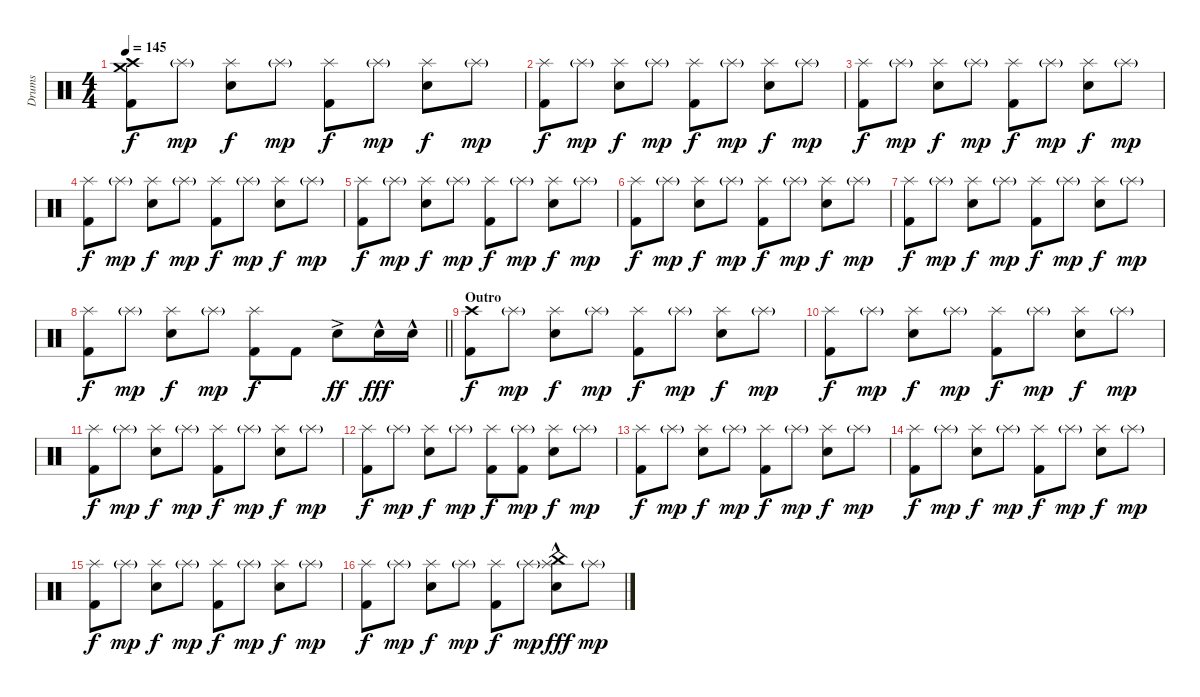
\track ("Drums" "Drums") {instrument percussion}
\staff {score}
\articulation defaults
\ts (4 4)
\tempo 145
\clef neutral
\ks c
("Crash high (hit)" "Crash medium (hit)" "Kick (hit) 2").8{dy f} "Splash (hit)"{g}.8{dy mp} ("Splash (hit)" "Snare (hit) 2").8{dy f} "Splash (hit)"{g}.8{dy mp} ("Splash (hit)" "Kick (hit) 2").8{dy f} "Splash (hit)"{g}.8{dy mp} ("Splash (hit)" "Snare (hit) 2").8{dy f} "Splash (hit)"{g}.8{dy mp} |
("Splash (hit)" "Kick (hit) 2").8{dy f} "Splash (hit)"{g}.8{dy mp} ("Splash (hit)" "Snare (hit) 2").8{dy f} "Splash (hit)"{g}.8{dy mp} ("Splash (hit)" "Kick (hit) 2").8{dy f} "Splash (hit)"{g}.8{dy mp} ("Splash (hit)" "Snare (hit) 2").8{dy f} "Splash (hit)"{g}.8{dy mp} |
("Splash (hit)" "Kick (hit) 2").8{dy f} "Splash (hit)"{g}.8{dy mp} ("Splash (hit)" "Snare (hit) 2").8{dy f} "Splash (hit)"{g}.8{dy mp} ("Splash (hit)" "Kick (hit) 2").8{dy f} "Splash (hit)"{g}.8{dy mp} ("Splash (hit)" "Snare (hit) 2").8{dy f} "Splash (hit)"{g}.8{dy mp} |
("Splash (hit)" "Kick (hit) 2").8{dy f} "Splash (hit)"{g}.8{dy mp} ("Splash (hit)" "Snare (hit) 2").8{dy f} "Splash (hit)"{g}.8{dy mp} ("Splash (hit)" "Kick (hit) 2").8{dy f} "Splash (hit)"{g}.8{dy mp} ("Splash (hit)" "Snare (hit) 2").8{dy f} "Splash (hit)"{g}.8{dy mp} |
("Splash (hit)" "Kick (hit) 2").8{dy f} "Splash (hit)"{g}.8{dy mp} ("Splash (hit)" "Snare (hit) 2").8{dy f} "Splash (hit)"{g}.8{dy mp} ("Splash (hit)" "Kick (hit) 2").8{dy f} "Splash (hit)"{g}.8{dy mp} ("Splash (hit)" "Snare (hit) 2").8{dy f} "Splash (hit)"{g}.8{dy mp} |
("Splash (hit)" "Kick (hit) 2").8{dy f} "Splash (hit)"{g}.8{dy mp} ("Splash (hit)" "Snare (hit) 2").8{dy f} "Splash (hit)"{g}.8{dy mp} ("Splash (hit)" "Kick (hit) 2").8{dy f} "Splash (hit)"{g}.8{dy mp} ("Splash (hit)" "Snare (hit) 2").8{dy f} "Splash (hit)"{g}.8{dy mp} |
("Splash (hit)" "Kick (hit) 2").8{dy f} "Splash (hit)"{g}.8{dy mp} ("Splash (hit)" "Snare (hit) 2").8{dy f} "Splash (hit)"{g}.8{dy mp} ("Splash (hit)" "Kick (hit) 2").8{dy f} "Splash (hit)"{g}.8{dy mp} ("Splash (hit)" "Snare (hit) 2").8{dy f} "Splash (hit)"{g}.8{dy mp} |
\barLineRight lightlight
("Splash (hit)" "Kick (hit) 2").8{dy f} "Splash (hit)"{g}.8{dy mp} ("Splash (hit)" "Snare (hit) 2").8{dy f} "Splash (hit)"{g}.8{dy mp} ("Splash (hit)" "Kick (hit) 2").8{dy f} "Kick (hit) 2".8 "Snare (hit) 2"{ac}.8{dy ff} "Snare (hit) 2"{hac}.16{dy fff} "Snare (hit) 2"{hac}.16 |
\section ("" "Outro")
("Crash high (hit)" "Kick (hit) 2").8{dy f} "Splash (hit)"{g}.8{dy mp} ("Splash (hit)" "Snare (hit) 2").8{dy f} "Splash (hit)"{g}.8{dy mp} ("Splash (hit)" "Kick (hit) 2").8{dy f} "Splash (hit)"{g}.8{dy mp} ("Splash (hit)" "Snare (hit) 2").8{dy f} "Splash (hit)"{g}.8{dy mp} |
("Splash (hit)" "Kick (hit) 2").8{dy f} "Splash (hit)"{g}.8{dy mp} ("Splash (hit)" "Snare (hit) 2").8{dy f} "Splash (hit)"{g}.8{dy mp} ("Splash (hit)" "Kick (hit) 2").8{dy f} "Splash (hit)"{g}.8{dy mp} ("Splash (hit)" "Snare (hit) 2").8{dy f} "Splash (hit)"{g}.8{dy mp} |
("Splash (hit)" "Kick (hit) 2").8{dy f} "Splash (hit)"{g}.8{dy mp} ("Splash (hit)" "Snare (hit) 2").8{dy f} "Splash (hit)"{g}.8{dy mp} ("Splash (hit)" "Kick (hit) 2").8{dy f} "Splash (hit)"{g}.8{dy mp} ("Splash (hit)" "Snare (hit) 2").8{dy f} "Splash (hit)"{g}.8{dy mp} |
("Splash (hit)" "Kick (hit) 2").8{dy f} "Splash (hit)"{g}.8{dy mp} ("Splash (hit)" "Snare (hit) 2").8{dy f} "Splash (hit)"{g}.8{dy mp} ("Splash (hit)" "Kick (hit) 2").8{dy f} ("Splash (hit)"{g} "Kick (hit) 2").8{dy mp} ("Splash (hit)" "Snare (hit) 2").8{dy f} "Splash (hit)"{g}.8{dy mp} |
("Splash (hit)" "Kick (hit) 2").8{dy f} "Splash (hit)"{g}.8{dy mp} ("Splash (hit)" "Snare (hit) 2").8{dy f} "Splash (hit)"{g}.8{dy mp} ("Splash (hit)" "Kick (hit) 2").8{dy f} "Splash (hit)"{g}.8{dy mp} ("Splash (hit)" "Snare (hit) 2").8{dy f} "Splash (hit)"{g}.8{dy mp} |
("Splash (hit)" "Kick (hit) 2").8{dy f} "Splash (hit)"{g}.8{dy mp} ("Splash (hit)" "Snare (hit) 2").8{dy f} "Splash (hit)"{g}.8{dy mp} ("Splash (hit)" "Kick (hit) 2").8{dy f} "Splash (hit)"{g}.8{dy mp} ("Splash (hit)" "Snare (hit) 2").8{dy f} "Splash (hit)"{g}.8{dy mp} |
("Splash (hit)" "Kick (hit) 2").8{dy f} "Splash (hit)"{g}.8{dy mp} ("Splash (hit)" "Snare (hit) 2").8{dy f} "Splash (hit)"{g}.8{dy mp} ("Splash (hit)" "Kick (hit) 2").8{dy f} "Splash (hit)"{g}.8{dy mp} ("Splash (hit)" "Snare (hit) 2").8{dy f} "Splash (hit)"{g}.8{dy mp} |
("Splash (hit)" "Kick (hit) 2").8{dy f} "Splash (hit)"{g}.8{dy mp} ("Splash (hit)" "Snare (hit) 2").8{dy f} "Splash (hit)"{g}.8{dy mp} ("Splash (hit)" "Kick (hit) 2").8{dy f} "Splash (hit)"{g}.8{dy mp} ("Splash (hit)"{hac} "China (hit)"{hac} "Snare (hit) 2").8{dy fff} "Splash (hit)"{g}.8{dy mp}
